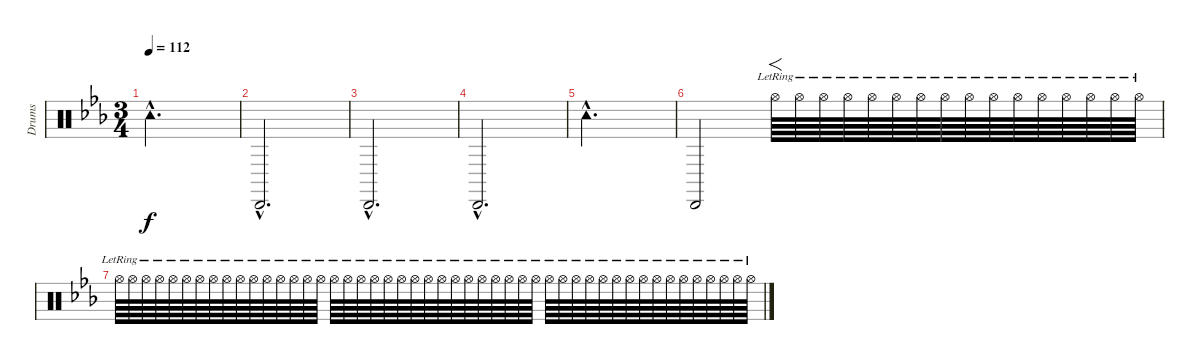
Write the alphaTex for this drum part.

\track ("Drums" "Drums") {instrument percussion}
\staff {score}
\articulation defaults
\ts (3 4)
\tempo 112
\clef neutral
\ks cminor "Tambourine (hit)"{hac}.2{d dy f}
|
"Cabasa (hit)"{hac}.2{d} |
"Cabasa (hit)"{hac}.2{d} |
"Cabasa (hit)"{hac}.2{d} |
"Tambourine (hit)"{hac}.2{d} |
"Cabasa (hit)".2 "Hi-Hat (open)"{lr}.64{f} "Hi-Hat (open)"{lr}.64 "Hi-Hat (open)"{lr}.64 "Hi-Hat (open)"{lr}.64 "Hi-Hat (open)"{lr}.64 "Hi-Hat (open)"{lr}.64 "Hi-Hat (open)"{lr}.64 "Hi-Hat (open)"{lr}.64 "Hi-Hat (open)"{lr}.64 "Hi-Hat (open)"{lr}.64 "Hi-Hat (open)"{lr}.64 "Hi-Hat (open)"{lr}.64 "Hi-Hat (open)"{lr}.64 "Hi-Hat (open)"{lr}.64 "Hi-Hat (open)"{lr}.64 "Hi-Hat (open)"{lr}.64 |
"Hi-Hat (open)"{lr}.64 "Hi-Hat (open)"{lr}.64 "Hi-Hat (open)"{lr}.64 "Hi-Hat (open)"{lr}.64 "Hi-Hat (open)"{lr}.64 "Hi-Hat (open)"{lr}.64 "Hi-Hat (open)"{lr}.64 "Hi-Hat (open)"{lr}.64 "Hi-Hat (open)"{lr}.64 "Hi-Hat (open)"{lr}.64 "Hi-Hat (open)"{lr}.64 "Hi-Hat (open)"{lr}.64 "Hi-Hat (open)"{lr}.64 "Hi-Hat (open)"{lr}.64 "Hi-Hat (open)"{lr}.64 "Hi-Hat (open)"{lr}.64 "Hi-Hat (open)"{lr}.64 "Hi-Hat (open)"{lr}.64 "Hi-Hat (open)"{lr}.64 "Hi-Hat (open)"{lr}.64 "Hi-Hat (open)"{lr}.64 "Hi-Hat (open)"{lr}.64 "Hi-Hat (open)"{lr}.64 "Hi-Hat (open)"{lr}.64 "Hi-Hat (open)"{lr}.64 "Hi-Hat (open)"{lr}.64 "Hi-Hat (open)"{lr}.64 "Hi-Hat (open)"{lr}.64 "Hi-Hat (open)"{lr}.64 "Hi-Hat (open)"{lr}.64 "Hi-Hat (open)"{lr}.64 "Hi-Hat (open)"{lr}.64 "Hi-Hat (open)"{lr}.64 "Hi-Hat (open)"{lr}.64 "Hi-Hat (open)"{lr}.64 "Hi-Hat (open)"{lr}.64 "Hi-Hat (open)"{lr}.64 "Hi-Hat (open)"{lr}.64 "Hi-Hat (open)"{lr}.64 "Hi-Hat (open)"{lr}.64 "Hi-Hat (open)"{lr}.64 "Hi-Hat (open)"{lr}.64 "Hi-Hat (open)"{lr}.64 "Hi-Hat (open)"{lr}.64 "Hi-Hat (open)"{lr}.64 "Hi-Hat (open)"{lr}.64 "Hi-Hat (open)"{lr}.64 "Hi-Hat (open)"{lr}.64
